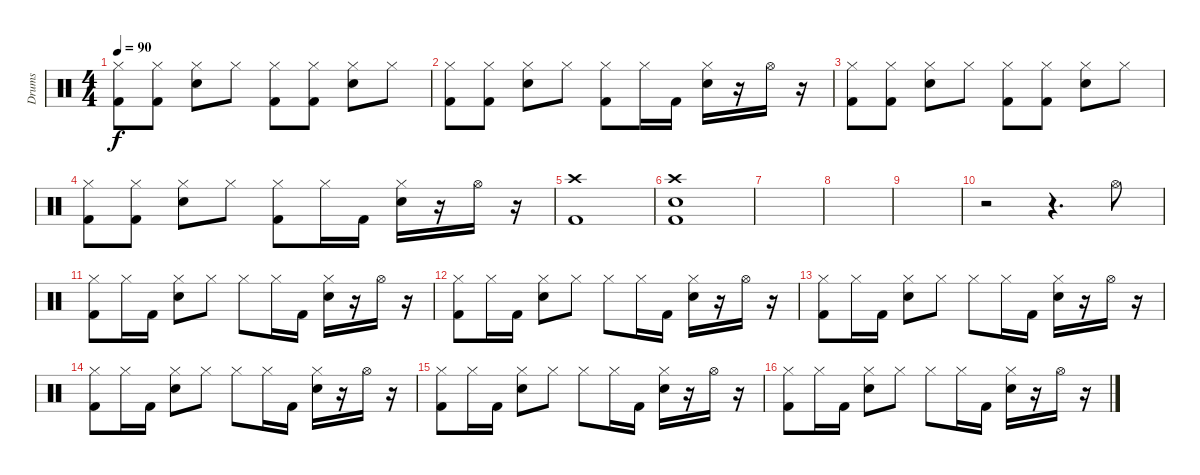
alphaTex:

\track ("Drums" "Drums") {instrument percussion}
\staff {score}
\articulation defaults
\ts (4 4)
\tempo 90
\clef neutral
\ks c
("Hi-Hat (closed)" "Kick (hit) 2").8{dy f} ("Hi-Hat (closed)" "Kick (hit) 2").8 ("Hi-Hat (closed)" "Electric Snare (hit)").8 "Hi-Hat (closed)".8 ("Hi-Hat (closed)" "Kick (hit) 2").8 ("Hi-Hat (closed)" "Kick (hit) 2").8 ("Hi-Hat (closed)" "Electric Snare (hit)").8 "Hi-Hat (closed)".8 |
("Hi-Hat (closed)" "Kick (hit) 2").8 ("Hi-Hat (closed)" "Kick (hit) 2").8 ("Hi-Hat (closed)" "Electric Snare (hit)").8 "Hi-Hat (closed)".8 ("Hi-Hat (closed)" "Kick (hit) 2").8 "Hi-Hat (closed)".16 "Kick (hit) 2".16 ("Hi-Hat (closed)" "Electric Snare (hit)").16 r.16 "Hi-Hat (open)".16 r.16 |
("Hi-Hat (closed)" "Kick (hit) 2").8 ("Hi-Hat (closed)" "Kick (hit) 2").8 ("Hi-Hat (closed)" "Electric Snare (hit)").8 "Hi-Hat (closed)".8 ("Hi-Hat (closed)" "Kick (hit) 2").8 ("Hi-Hat (closed)" "Kick (hit) 2").8 ("Hi-Hat (closed)" "Electric Snare (hit)").8 "Hi-Hat (closed)".8 |
("Hi-Hat (closed)" "Kick (hit) 2").8 ("Hi-Hat (closed)" "Kick (hit) 2").8 ("Hi-Hat (closed)" "Electric Snare (hit)").8 "Hi-Hat (closed)".8 ("Hi-Hat (closed)" "Kick (hit) 2").8 "Hi-Hat (closed)".16 "Kick (hit) 2".16 ("Hi-Hat (closed)" "Electric Snare (hit)").16 r.16 "Hi-Hat (open)".16 r.16 |
("Crash high (hit)" "Kick (hit) 2").1 |
("Crash high (hit)" "Electric Snare (hit)" "Kick (hit) 2").1 |
|
|
|
r.2 r.4{d} "Hi-Hat (open)".8 |
("Hi-Hat (closed)" "Kick (hit) 2").8 "Hi-Hat (closed)".16 "Kick (hit) 2".16 ("Hi-Hat (closed)" "Electric Snare (hit)").8 "Hi-Hat (closed)".8 "Hi-Hat (closed)".8 "Hi-Hat (closed)".16 "Kick (hit) 2".16 ("Hi-Hat (closed)" "Electric Snare (hit)").16 r.16 "Hi-Hat (open)".16 r.16 |
("Hi-Hat (closed)" "Kick (hit) 2").8 "Hi-Hat (closed)".16 "Kick (hit) 2".16 ("Hi-Hat (closed)" "Electric Snare (hit)").8 "Hi-Hat (closed)".8 "Hi-Hat (closed)".8 "Hi-Hat (closed)".16 "Kick (hit) 2".16 ("Hi-Hat (closed)" "Electric Snare (hit)").16 r.16 "Hi-Hat (open)".16 r.16 |
("Hi-Hat (closed)" "Kick (hit) 2").8 "Hi-Hat (closed)".16 "Kick (hit) 2".16 ("Hi-Hat (closed)" "Electric Snare (hit)").8 "Hi-Hat (closed)".8 "Hi-Hat (closed)".8 "Hi-Hat (closed)".16 "Kick (hit) 2".16 ("Hi-Hat (closed)" "Electric Snare (hit)").16 r.16 "Hi-Hat (open)".16 r.16 |
("Hi-Hat (closed)" "Kick (hit) 2").8 "Hi-Hat (closed)".16 "Kick (hit) 2".16 ("Hi-Hat (closed)" "Electric Snare (hit)").8 "Hi-Hat (closed)".8 "Hi-Hat (closed)".8 "Hi-Hat (closed)".16 "Kick (hit) 2".16 ("Hi-Hat (closed)" "Electric Snare (hit)").16 r.16 "Hi-Hat (open)".16 r.16 |
("Hi-Hat (closed)" "Kick (hit) 2").8 "Hi-Hat (closed)".16 "Kick (hit) 2".16 ("Hi-Hat (closed)" "Electric Snare (hit)").8 "Hi-Hat (closed)".8 "Hi-Hat (closed)".8 "Hi-Hat (closed)".16 "Kick (hit) 2".16 ("Hi-Hat (closed)" "Electric Snare (hit)").16 r.16 "Hi-Hat (open)".16 r.16 |
("Hi-Hat (closed)" "Kick (hit) 2").8 "Hi-Hat (closed)".16 "Kick (hit) 2".16 ("Hi-Hat (closed)" "Electric Snare (hit)").8 "Hi-Hat (closed)".8 "Hi-Hat (closed)".8 "Hi-Hat (closed)".16 "Kick (hit) 2".16 ("Hi-Hat (closed)" "Electric Snare (hit)").16 r.16 "Hi-Hat (open)".16 r.16
